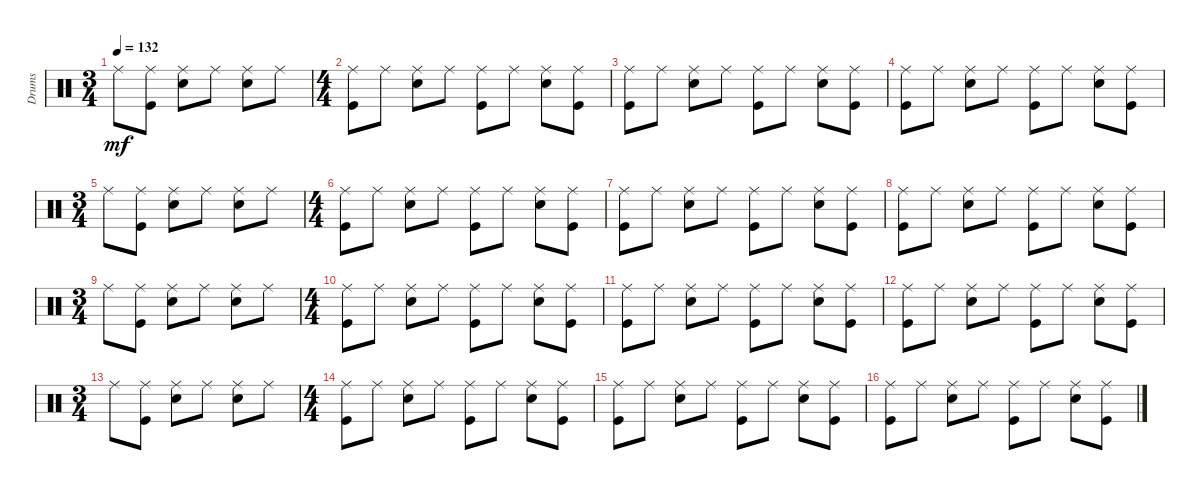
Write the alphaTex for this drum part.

\track ("Drums" "Drums") {instrument percussion}
\staff {score}
\articulation defaults
\ts (3 4)
\tempo 132
\clef neutral
\ks c "Ride (middle)".8{dy mf}
("Kick (hit)" "Ride (middle)").8 ("Electric Snare (hit)" "Ride (middle)").8 "Ride (middle)".8 ("Electric Snare (hit)" "Ride (middle)").8 "Ride (middle)".8 |
\ts (4 4)
("Kick (hit)" "Ride (middle)").8 "Ride (middle)".8 ("Electric Snare (hit)" "Ride (middle)").8 "Ride (middle)".8 ("Kick (hit)" "Ride (middle)").8 "Ride (middle)".8 ("Electric Snare (hit)" "Ride (middle)").8 ("Kick (hit)" "Ride (middle)").8 |
("Kick (hit)" "Ride (middle)").8 "Ride (middle)".8 ("Electric Snare (hit)" "Ride (middle)").8 "Ride (middle)".8 ("Kick (hit)" "Ride (middle)").8 "Ride (middle)".8 ("Electric Snare (hit)" "Ride (middle)").8 ("Kick (hit)" "Ride (middle)").8 |
("Kick (hit)" "Ride (middle)").8 "Ride (middle)".8 ("Electric Snare (hit)" "Ride (middle)").8 "Ride (middle)".8 ("Kick (hit)" "Ride (middle)").8 "Ride (middle)".8 ("Electric Snare (hit)" "Ride (middle)").8 ("Kick (hit)" "Ride (middle)").8 |
\ts (3 4)
"Ride (middle)".8 ("Kick (hit)" "Ride (middle)").8 ("Electric Snare (hit)" "Ride (middle)").8 "Ride (middle)".8 ("Electric Snare (hit)" "Ride (middle)").8 "Ride (middle)".8 |
\ts (4 4)
("Kick (hit)" "Ride (middle)").8 "Ride (middle)".8 ("Electric Snare (hit)" "Ride (middle)").8 "Ride (middle)".8 ("Kick (hit)" "Ride (middle)").8 "Ride (middle)".8 ("Electric Snare (hit)" "Ride (middle)").8 ("Kick (hit)" "Ride (middle)").8 |
("Kick (hit)" "Ride (middle)").8 "Ride (middle)".8 ("Electric Snare (hit)" "Ride (middle)").8 "Ride (middle)".8 ("Kick (hit)" "Ride (middle)").8 "Ride (middle)".8 ("Electric Snare (hit)" "Ride (middle)").8 ("Kick (hit)" "Ride (middle)").8 |
("Kick (hit)" "Ride (middle)").8 "Ride (middle)".8 ("Electric Snare (hit)" "Ride (middle)").8 "Ride (middle)".8 ("Kick (hit)" "Ride (middle)").8 "Ride (middle)".8 ("Electric Snare (hit)" "Ride (middle)").8 ("Kick (hit)" "Ride (middle)").8 |
\ts (3 4)
"Ride (middle)".8 ("Kick (hit)" "Ride (middle)").8 ("Electric Snare (hit)" "Ride (middle)").8 "Ride (middle)".8 ("Electric Snare (hit)" "Ride (middle)").8 "Ride (middle)".8 |
\ts (4 4)
("Kick (hit)" "Ride (middle)").8 "Ride (middle)".8 ("Electric Snare (hit)" "Ride (middle)").8 "Ride (middle)".8 ("Kick (hit)" "Ride (middle)").8 "Ride (middle)".8 ("Electric Snare (hit)" "Ride (middle)").8 ("Kick (hit)" "Ride (middle)").8 |
("Kick (hit)" "Ride (middle)").8 "Ride (middle)".8 ("Electric Snare (hit)" "Ride (middle)").8 "Ride (middle)".8 ("Kick (hit)" "Ride (middle)").8 "Ride (middle)".8 ("Electric Snare (hit)" "Ride (middle)").8 ("Kick (hit)" "Ride (middle)").8 |
("Kick (hit)" "Ride (middle)").8 "Ride (middle)".8 ("Electric Snare (hit)" "Ride (middle)").8 "Ride (middle)".8 ("Kick (hit)" "Ride (middle)").8 "Ride (middle)".8 ("Electric Snare (hit)" "Ride (middle)").8 ("Kick (hit)" "Ride (middle)").8 |
\ts (3 4)
"Ride (middle)".8 ("Kick (hit)" "Ride (middle)").8 ("Electric Snare (hit)" "Ride (middle)").8 "Ride (middle)".8 ("Electric Snare (hit)" "Ride (middle)").8 "Ride (middle)".8 |
\ts (4 4)
("Kick (hit)" "Ride (middle)").8 "Ride (middle)".8 ("Electric Snare (hit)" "Ride (middle)").8 "Ride (middle)".8 ("Kick (hit)" "Ride (middle)").8 "Ride (middle)".8 ("Electric Snare (hit)" "Ride (middle)").8 ("Kick (hit)" "Ride (middle)").8 |
("Kick (hit)" "Ride (middle)").8 "Ride (middle)".8 ("Electric Snare (hit)" "Ride (middle)").8 "Ride (middle)".8 ("Kick (hit)" "Ride (middle)").8 "Ride (middle)".8 ("Electric Snare (hit)" "Ride (middle)").8 ("Kick (hit)" "Ride (middle)").8 |
("Kick (hit)" "Ride (middle)").8 "Ride (middle)".8 ("Electric Snare (hit)" "Ride (middle)").8 "Ride (middle)".8 ("Kick (hit)" "Ride (middle)").8 "Ride (middle)".8 ("Electric Snare (hit)" "Ride (middle)").8 ("Kick (hit)" "Ride (middle)").8
